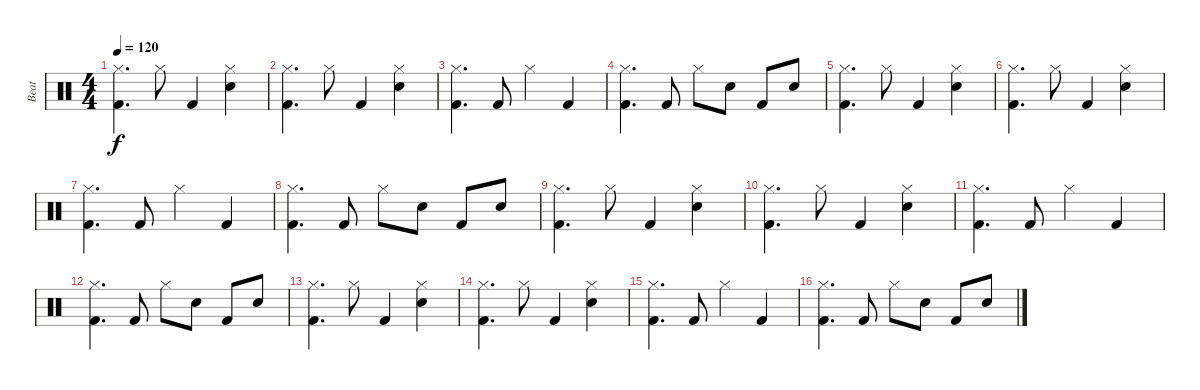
\track ("Beat" "Beat") {instrument percussion}
\staff {score}
\articulation defaults
\ts (4 4)
\tempo 120
\clef neutral
\ks c
("Hi-Hat (closed)" "Kick (hit) 2").4{d dy f} "Hi-Hat (closed)".8 "Kick (hit) 2".4 ("Hi-Hat (closed)" "Snare (hit) 2").4 |
("Hi-Hat (closed)" "Kick (hit) 2").4{d} "Hi-Hat (closed)".8 "Kick (hit) 2".4 ("Hi-Hat (closed)" "Snare (hit) 2").4 |
("Hi-Hat (closed)" "Kick (hit) 2").4{d} "Kick (hit) 2".8 "Hi-Hat (closed)".4 "Kick (hit) 2".4 |
("Hi-Hat (closed)" "Kick (hit) 2").4{d} "Kick (hit) 2".8 "Hi-Hat (closed)".8 "Snare (hit) 2".8 "Kick (hit) 2".8 "Snare (hit) 2".8 |
("Hi-Hat (closed)" "Kick (hit) 2").4{d} "Hi-Hat (closed)".8 "Kick (hit) 2".4 ("Hi-Hat (closed)" "Snare (hit) 2").4 |
("Hi-Hat (closed)" "Kick (hit) 2").4{d} "Hi-Hat (closed)".8 "Kick (hit) 2".4 ("Hi-Hat (closed)" "Snare (hit) 2").4 |
("Hi-Hat (closed)" "Kick (hit) 2").4{d} "Kick (hit) 2".8 "Hi-Hat (closed)".4 "Kick (hit) 2".4 |
("Hi-Hat (closed)" "Kick (hit) 2").4{d} "Kick (hit) 2".8 "Hi-Hat (closed)".8 "Snare (hit) 2".8 "Kick (hit) 2".8 "Snare (hit) 2".8 |
("Hi-Hat (closed)" "Kick (hit) 2").4{d} "Hi-Hat (closed)".8 "Kick (hit) 2".4 ("Hi-Hat (closed)" "Snare (hit) 2").4 |
("Hi-Hat (closed)" "Kick (hit) 2").4{d} "Hi-Hat (closed)".8 "Kick (hit) 2".4 ("Hi-Hat (closed)" "Snare (hit) 2").4 |
("Hi-Hat (closed)" "Kick (hit) 2").4{d} "Kick (hit) 2".8 "Hi-Hat (closed)".4 "Kick (hit) 2".4 |
("Hi-Hat (closed)" "Kick (hit) 2").4{d} "Kick (hit) 2".8 "Hi-Hat (closed)".8 "Snare (hit) 2".8 "Kick (hit) 2".8 "Snare (hit) 2".8 |
("Hi-Hat (closed)" "Kick (hit) 2").4{d} "Hi-Hat (closed)".8 "Kick (hit) 2".4 ("Hi-Hat (closed)" "Snare (hit) 2").4 |
("Hi-Hat (closed)" "Kick (hit) 2").4{d} "Hi-Hat (closed)".8 "Kick (hit) 2".4 ("Hi-Hat (closed)" "Snare (hit) 2").4 |
("Hi-Hat (closed)" "Kick (hit) 2").4{d} "Kick (hit) 2".8 "Hi-Hat (closed)".4 "Kick (hit) 2".4 |
("Hi-Hat (closed)" "Kick (hit) 2").4{d} "Kick (hit) 2".8 "Hi-Hat (closed)".8 "Snare (hit) 2".8 "Kick (hit) 2".8 "Snare (hit) 2".8
